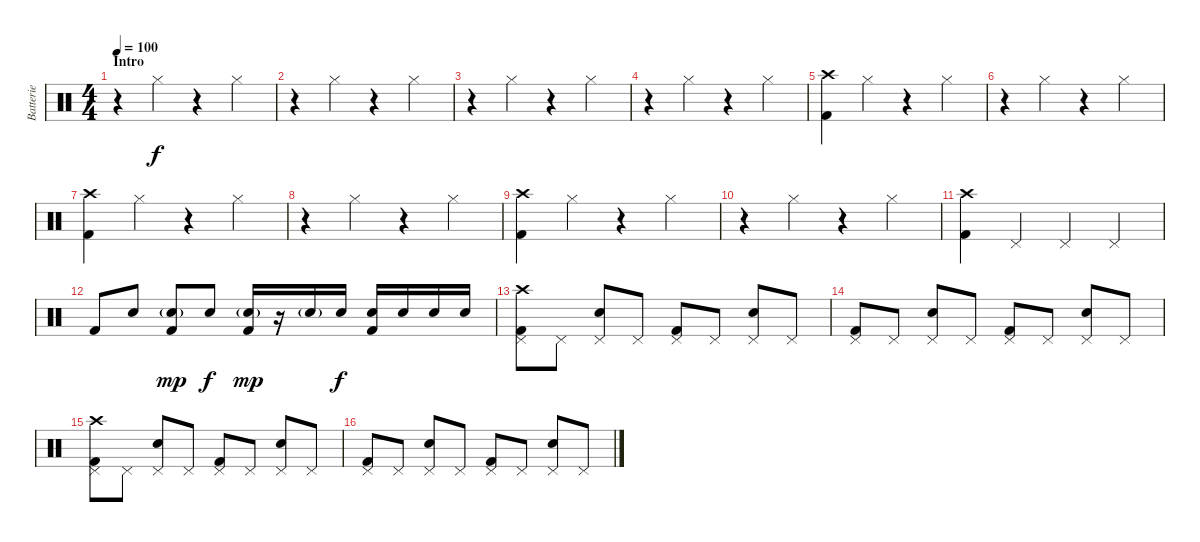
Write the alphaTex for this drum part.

\track ("Batterie" "Batterie") {instrument percussion}
\staff {score}
\articulation defaults
\ts (4 4)
\section ("" "Intro")
\tempo 100
\clef neutral
\ks c
r.4{dy f} "Hi-Hat (closed)".4 r.4 "Hi-Hat (closed)".4 |
r.4 "Hi-Hat (closed)".4 r.4 "Hi-Hat (closed)".4 |
r.4 "Hi-Hat (closed)".4 r.4 "Hi-Hat (closed)".4 |
r.4 "Hi-Hat (closed)".4 r.4 "Hi-Hat (closed)".4 |
("Crash high (hit)" "Kick (hit) 2").4 "Hi-Hat (closed)".4 r.4 "Hi-Hat (closed)".4 |
r.4 "Hi-Hat (closed)".4 r.4 "Hi-Hat (closed)".4 |
("Crash high (hit)" "Kick (hit) 2").4 "Hi-Hat (closed)".4 r.4 "Hi-Hat (closed)".4 |
r.4 "Hi-Hat (closed)".4 r.4 "Hi-Hat (closed)".4 |
("Crash high (hit)" "Kick (hit) 2").4 "Hi-Hat (closed)".4 r.4 "Hi-Hat (closed)".4 |
r.4 "Hi-Hat (closed)".4 r.4 "Hi-Hat (closed)".4 |
("Crash high (hit)" "Kick (hit) 2").4 "Pedal Hi-Hat (hit)".4 "Pedal Hi-Hat (hit)".4 "Pedal Hi-Hat (hit)".4 |
"Kick (hit) 2".8 "Snare (hit) 2".8 ("Snare (hit) 2"{g} "Kick (hit) 2").8{dy mp} "Snare (hit) 2".8{dy f} ("Snare (hit) 2"{g} "Kick (hit) 2").16{dy mp} r.16 "Snare (hit) 2"{g}.16 "Snare (hit) 2".16{dy f} ("Snare (hit) 2" "Kick (hit) 2").16 "Snare (hit) 2".16 "Snare (hit) 2".16 "Snare (hit) 2".16 |
("Pedal Hi-Hat (hit)" "Crash high (hit)" "Kick (hit) 2").8 "Pedal Hi-Hat (hit)".8 ("Pedal Hi-Hat (hit)" "Snare (hit) 2").8 "Pedal Hi-Hat (hit)".8 ("Pedal Hi-Hat (hit)" "Kick (hit) 2").8 "Pedal Hi-Hat (hit)".8 ("Pedal Hi-Hat (hit)" "Snare (hit) 2").8 "Pedal Hi-Hat (hit)".8 |
("Pedal Hi-Hat (hit)" "Kick (hit) 2").8 "Pedal Hi-Hat (hit)".8 ("Pedal Hi-Hat (hit)" "Snare (hit) 2").8 "Pedal Hi-Hat (hit)".8 ("Pedal Hi-Hat (hit)" "Kick (hit) 2").8 "Pedal Hi-Hat (hit)".8 ("Pedal Hi-Hat (hit)" "Snare (hit) 2").8 "Pedal Hi-Hat (hit)".8 |
("Pedal Hi-Hat (hit)" "Crash high (hit)" "Kick (hit) 2").8 "Pedal Hi-Hat (hit)".8 ("Pedal Hi-Hat (hit)" "Snare (hit) 2").8 "Pedal Hi-Hat (hit)".8 ("Pedal Hi-Hat (hit)" "Kick (hit) 2").8 "Pedal Hi-Hat (hit)".8 ("Pedal Hi-Hat (hit)" "Snare (hit) 2").8 "Pedal Hi-Hat (hit)".8 |
("Pedal Hi-Hat (hit)" "Kick (hit) 2").8 "Pedal Hi-Hat (hit)".8 ("Pedal Hi-Hat (hit)" "Snare (hit) 2").8 "Pedal Hi-Hat (hit)".8 ("Pedal Hi-Hat (hit)" "Kick (hit) 2").8 "Pedal Hi-Hat (hit)".8 ("Pedal Hi-Hat (hit)" "Snare (hit) 2").8 "Pedal Hi-Hat (hit)".8
